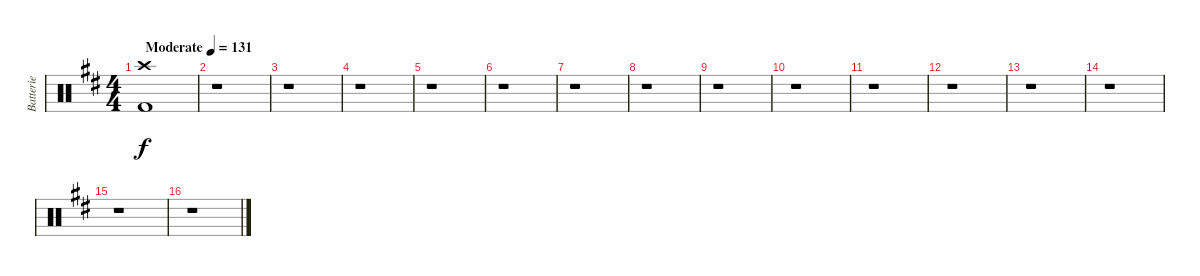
\track ("Batterie" "Batterie") {instrument percussion}
\staff {score}
\articulation defaults
\ts (4 4)
\tempo (131 "Moderate")
\clef neutral
\ks d
("Crash high (hit)" "Kick (hit) 2").1{dy f} |
r.1 |
r.1 |
r.1 |
r.1 |
r.1 |
r.1 |
r.1 |
r.1 |
r.1 |
r.1 |
r.1 |
r.1 |
r.1 |
r.1 |
r.1
